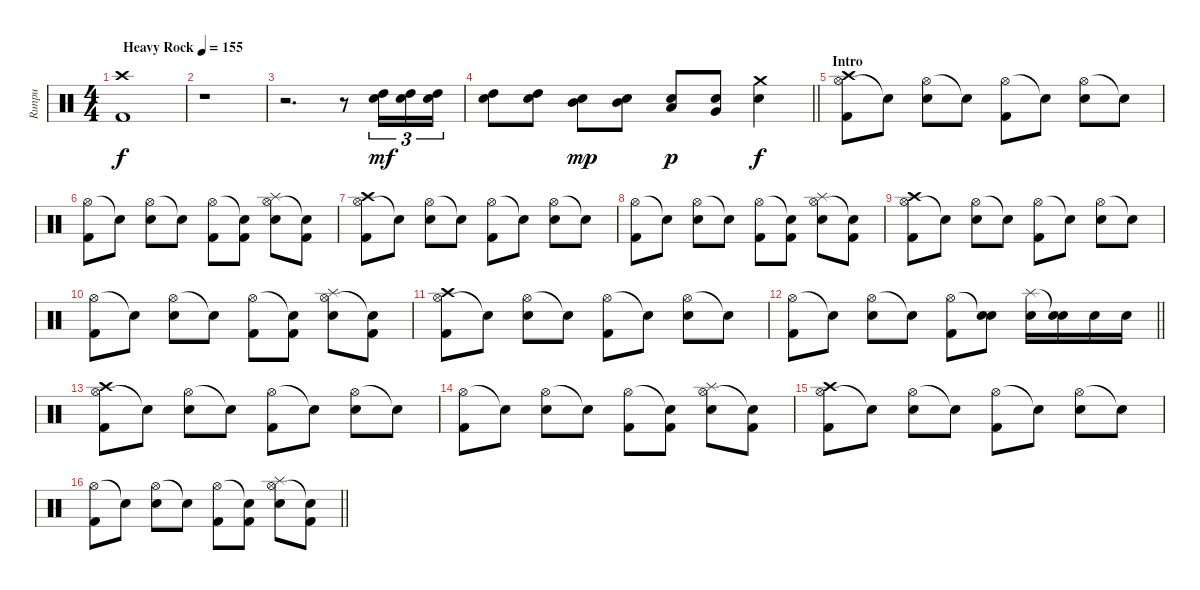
\track ("Runpu" "Runpu") {instrument percussion}
\staff {score}
\articulation defaults
\ts (4 4)
\tempo (155 "Heavy Rock")
\clef neutral
\ks c
("Crash high (hit)" "Kick (hit) 2").1{dy f} |
r.1 |
r.2{d} r.8 ("High Tom (hit)" "Electric Snare (hit)").16{tu (3 2) dy mf} ("High Tom (hit)" "Electric Snare (hit)").16{tu (3 2)} ("High Tom (hit)" "Electric Snare (hit)").16{tu (3 2)} |
\barLineRight lightlight
("High Tom (hit)" "Electric Snare (hit)").8 ("High Tom (hit)" "Electric Snare (hit)").8 ("Mid Tom (hit)" "Electric Snare (hit)").8{dy mp} ("Mid Tom (hit)" "Electric Snare (hit)").8 ("Low Tom (hit)" "Electric Snare (hit)").8{dy p} ("Very Low Tom (hit)" "Electric Snare (hit)").8 ("Crash medium (hit)" "Snare (hit) 2").4{dy f} |
\section ("" "Intro")
("Hi-Hat (open)" "Crash high (hit)" "Kick (hit) 2").8 "Snare (hit)"{t}.8 ("Hi-Hat (open)" "Snare (hit) 2").8 "Snare (hit)"{t}.8 ("Hi-Hat (open)" "Kick (hit) 2").8 "Snare (hit)"{t}.8 ("Hi-Hat (open)" "Snare (hit) 2").8 "Snare (hit)"{t}.8 |
("Hi-Hat (open)" "Kick (hit) 2").8 "Snare (hit)"{t}.8 ("Hi-Hat (open)" "Snare (hit) 2").8 "Snare (hit)"{t}.8 ("Hi-Hat (open)" "Kick (hit) 2").8 ("Snare (hit)"{t} "Kick (hit) 2").8 ("Hi-Hat (open)" "Splash (hit)" "Snare (hit) 2").8 ("Snare (hit)"{t} "Kick (hit) 2").8 |
("Hi-Hat (open)" "Crash high (hit)" "Kick (hit) 2").8 "Snare (hit)"{t}.8 ("Hi-Hat (open)" "Snare (hit) 2").8 "Snare (hit)"{t}.8 ("Hi-Hat (open)" "Kick (hit) 2").8 "Snare (hit)"{t}.8 ("Hi-Hat (open)" "Snare (hit) 2").8 "Snare (hit)"{t}.8 |
("Hi-Hat (open)" "Kick (hit) 2").8 "Snare (hit)"{t}.8 ("Hi-Hat (open)" "Snare (hit) 2").8 "Snare (hit)"{t}.8 ("Hi-Hat (open)" "Kick (hit) 2").8 ("Snare (hit)"{t} "Kick (hit) 2").8 ("Hi-Hat (open)" "Splash (hit)" "Snare (hit) 2").8 ("Snare (hit)"{t} "Kick (hit) 2").8 |
("Hi-Hat (open)" "Crash high (hit)" "Kick (hit) 2").8 "Snare (hit)"{t}.8 ("Hi-Hat (open)" "Snare (hit) 2").8 "Snare (hit)"{t}.8 ("Hi-Hat (open)" "Kick (hit) 2").8 "Snare (hit)"{t}.8 ("Hi-Hat (open)" "Snare (hit) 2").8 "Snare (hit)"{t}.8 |
("Hi-Hat (open)" "Kick (hit) 2").8 "Snare (hit)"{t}.8 ("Hi-Hat (open)" "Snare (hit) 2").8 "Snare (hit)"{t}.8 ("Hi-Hat (open)" "Kick (hit) 2").8 ("Snare (hit)"{t} "Kick (hit) 2").8 ("Hi-Hat (open)" "Splash (hit)" "Snare (hit) 2").8 ("Snare (hit)"{t} "Kick (hit) 2").8 |
("Hi-Hat (open)" "Crash high (hit)" "Kick (hit) 2").8 "Snare (hit)"{t}.8 ("Hi-Hat (open)" "Snare (hit) 2").8 "Snare (hit)"{t}.8 ("Hi-Hat (open)" "Kick (hit) 2").8 "Snare (hit)"{t}.8 ("Hi-Hat (open)" "Snare (hit) 2").8 "Snare (hit)"{t}.8 |
\barLineRight lightlight
("Hi-Hat (open)" "Kick (hit) 2").8 "Snare (hit)"{t}.8 ("Hi-Hat (open)" "Snare (hit) 2").8 "Snare (hit)"{t}.8 ("Hi-Hat (open)" "Kick (hit) 2").8 ("Snare (hit)"{t} "Snare (hit) 2").8 ("Splash (hit)" "Snare (hit) 2").16 ("Snare (hit)"{t} "Snare (hit) 2").16 "Snare (hit) 2".16 "Snare (hit) 2".16 |
("Hi-Hat (open)" "Crash high (hit)" "Kick (hit) 2").8 "Snare (hit)"{t}.8 ("Hi-Hat (open)" "Snare (hit) 2").8 "Snare (hit)"{t}.8 ("Hi-Hat (open)" "Kick (hit) 2").8 "Snare (hit)"{t}.8 ("Hi-Hat (open)" "Snare (hit) 2").8 "Snare (hit)"{t}.8 |
("Hi-Hat (open)" "Kick (hit) 2").8 "Snare (hit)"{t}.8 ("Hi-Hat (open)" "Snare (hit) 2").8 "Snare (hit)"{t}.8 ("Hi-Hat (open)" "Kick (hit) 2").8 ("Snare (hit)"{t} "Kick (hit) 2").8 ("Hi-Hat (open)" "Splash (hit)" "Snare (hit) 2").8 ("Snare (hit)"{t} "Kick (hit) 2").8 |
("Hi-Hat (open)" "Crash high (hit)" "Kick (hit) 2").8 "Snare (hit)"{t}.8 ("Hi-Hat (open)" "Snare (hit) 2").8 "Snare (hit)"{t}.8 ("Hi-Hat (open)" "Kick (hit) 2").8 "Snare (hit)"{t}.8 ("Hi-Hat (open)" "Snare (hit) 2").8 "Snare (hit)"{t}.8 |
\barLineRight lightlight
("Hi-Hat (open)" "Kick (hit) 2").8 "Snare (hit)"{t}.8 ("Hi-Hat (open)" "Snare (hit) 2").8 "Snare (hit)"{t}.8 ("Hi-Hat (open)" "Kick (hit) 2").8 ("Snare (hit)"{t} "Kick (hit) 2").8 ("Hi-Hat (open)" "Splash (hit)" "Snare (hit) 2").8 ("Snare (hit)"{t} "Kick (hit) 2").8
